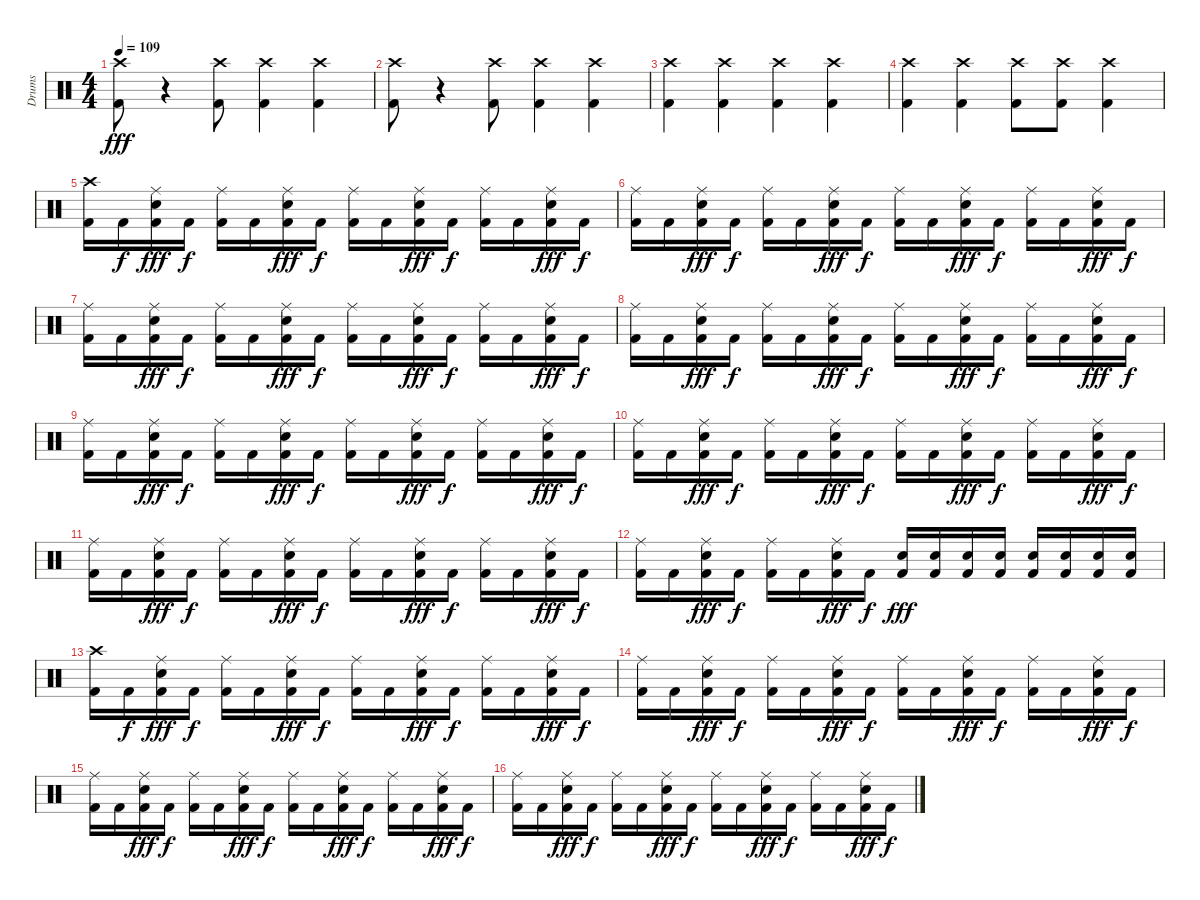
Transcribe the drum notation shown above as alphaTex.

\track ("Drums" "Drums") {instrument percussion}
\staff {score}
\articulation defaults
\ts (4 4)
\tempo 109
\clef neutral
\ks c
("Kick (hit) 2" "Crash high (hit)").8{dy fff} r.4 ("Kick (hit) 2" "Crash high (hit)").8 ("Kick (hit) 2" "Crash high (hit)").4 ("Kick (hit) 2" "Crash high (hit)").4 |
("Kick (hit) 2" "Crash high (hit)").8 r.4 ("Kick (hit) 2" "Crash high (hit)").8 ("Kick (hit) 2" "Crash high (hit)").4 ("Kick (hit) 2" "Crash high (hit)").4 |
("Kick (hit) 2" "Crash high (hit)").4 ("Kick (hit) 2" "Crash high (hit)").4 ("Kick (hit) 2" "Crash high (hit)").4 ("Kick (hit) 2" "Crash high (hit)").4 |
("Kick (hit) 2" "Crash high (hit)").4 ("Kick (hit) 2" "Crash high (hit)").4 ("Kick (hit) 2" "Crash high (hit)").8 ("Kick (hit) 2" "Crash high (hit)").8 ("Kick (hit) 2" "Crash high (hit)").4 |
("Kick (hit) 2" "Crash high (hit)").16 "Kick (hit) 2".16{dy f} ("Kick (hit) 2" "Snare (hit) 2" "Ride (middle)").16{dy fff} "Kick (hit) 2".16{dy f} ("Ride (middle)" "Kick (hit) 2").16 "Kick (hit) 2".16 ("Kick (hit) 2" "Snare (hit) 2" "Ride (middle)").16{dy fff} "Kick (hit) 2".16{dy f} ("Ride (middle)" "Kick (hit) 2").16 "Kick (hit) 2".16 ("Kick (hit) 2" "Snare (hit) 2" "Ride (middle)").16{dy fff} "Kick (hit) 2".16{dy f} ("Ride (middle)" "Kick (hit) 2").16 "Kick (hit) 2".16 ("Snare (hit) 2" "Ride (middle)" "Kick (hit) 2").16{dy fff} "Kick (hit) 2".16{dy f} |
("Ride (middle)" "Kick (hit) 2").16 "Kick (hit) 2".16 ("Ride (middle)" "Kick (hit) 2" "Snare (hit) 2").16{dy fff} "Kick (hit) 2".16{dy f} ("Kick (hit) 2" "Ride (middle)").16 "Kick (hit) 2".16 ("Ride (middle)" "Kick (hit) 2" "Snare (hit) 2").16{dy fff} "Kick (hit) 2".16{dy f} ("Kick (hit) 2" "Ride (middle)").16 "Kick (hit) 2".16 ("Ride (middle)" "Kick (hit) 2" "Snare (hit) 2").16{dy fff} "Kick (hit) 2".16{dy f} ("Kick (hit) 2" "Ride (middle)").16 "Kick (hit) 2".16 ("Ride (middle)" "Kick (hit) 2" "Snare (hit) 2").16{dy fff} "Kick (hit) 2".16{dy f} |
("Ride (middle)" "Kick (hit) 2").16 "Kick (hit) 2".16 ("Ride (middle)" "Kick (hit) 2" "Snare (hit) 2").16{dy fff} "Kick (hit) 2".16{dy f} ("Kick (hit) 2" "Ride (middle)").16 "Kick (hit) 2".16 ("Ride (middle)" "Kick (hit) 2" "Snare (hit) 2").16{dy fff} "Kick (hit) 2".16{dy f} ("Kick (hit) 2" "Ride (middle)").16 "Kick (hit) 2".16 ("Ride (middle)" "Kick (hit) 2" "Snare (hit) 2").16{dy fff} "Kick (hit) 2".16{dy f} ("Kick (hit) 2" "Ride (middle)").16 "Kick (hit) 2".16 ("Ride (middle)" "Kick (hit) 2" "Snare (hit) 2").16{dy fff} "Kick (hit) 2".16{dy f} |
("Ride (middle)" "Kick (hit) 2").16 "Kick (hit) 2".16 ("Ride (middle)" "Kick (hit) 2" "Snare (hit) 2").16{dy fff} "Kick (hit) 2".16{dy f} ("Kick (hit) 2" "Ride (middle)").16 "Kick (hit) 2".16 ("Ride (middle)" "Kick (hit) 2" "Snare (hit) 2").16{dy fff} "Kick (hit) 2".16{dy f} ("Kick (hit) 2" "Ride (middle)").16 "Kick (hit) 2".16 ("Ride (middle)" "Kick (hit) 2" "Snare (hit) 2").16{dy fff} "Kick (hit) 2".16{dy f} ("Kick (hit) 2" "Ride (middle)").16 "Kick (hit) 2".16 ("Ride (middle)" "Kick (hit) 2" "Snare (hit) 2").16{dy fff} "Kick (hit) 2".16{dy f} |
("Ride (middle)" "Kick (hit) 2").16 "Kick (hit) 2".16 ("Ride (middle)" "Kick (hit) 2" "Snare (hit) 2").16{dy fff} "Kick (hit) 2".16{dy f} ("Kick (hit) 2" "Ride (middle)").16 "Kick (hit) 2".16 ("Ride (middle)" "Kick (hit) 2" "Snare (hit) 2").16{dy fff} "Kick (hit) 2".16{dy f} ("Kick (hit) 2" "Ride (middle)").16 "Kick (hit) 2".16 ("Ride (middle)" "Kick (hit) 2" "Snare (hit) 2").16{dy fff} "Kick (hit) 2".16{dy f} ("Kick (hit) 2" "Ride (middle)").16 "Kick (hit) 2".16 ("Ride (middle)" "Kick (hit) 2" "Snare (hit) 2").16{dy fff} "Kick (hit) 2".16{dy f} |
("Ride (middle)" "Kick (hit) 2").16 "Kick (hit) 2".16 ("Ride (middle)" "Kick (hit) 2" "Snare (hit) 2").16{dy fff} "Kick (hit) 2".16{dy f} ("Kick (hit) 2" "Ride (middle)").16 "Kick (hit) 2".16 ("Ride (middle)" "Kick (hit) 2" "Snare (hit) 2").16{dy fff} "Kick (hit) 2".16{dy f} ("Kick (hit) 2" "Ride (middle)").16 "Kick (hit) 2".16 ("Ride (middle)" "Kick (hit) 2" "Snare (hit) 2").16{dy fff} "Kick (hit) 2".16{dy f} ("Kick (hit) 2" "Ride (middle)").16 "Kick (hit) 2".16 ("Ride (middle)" "Kick (hit) 2" "Snare (hit) 2").16{dy fff} "Kick (hit) 2".16{dy f} |
("Ride (middle)" "Kick (hit) 2").16 "Kick (hit) 2".16 ("Ride (middle)" "Kick (hit) 2" "Snare (hit) 2").16{dy fff} "Kick (hit) 2".16{dy f} ("Kick (hit) 2" "Ride (middle)").16 "Kick (hit) 2".16 ("Ride (middle)" "Kick (hit) 2" "Snare (hit) 2").16{dy fff} "Kick (hit) 2".16{dy f} ("Kick (hit) 2" "Ride (middle)").16 "Kick (hit) 2".16 ("Ride (middle)" "Kick (hit) 2" "Snare (hit) 2").16{dy fff} "Kick (hit) 2".16{dy f} ("Kick (hit) 2" "Ride (middle)").16 "Kick (hit) 2".16 ("Ride (middle)" "Kick (hit) 2" "Snare (hit) 2").16{dy fff} "Kick (hit) 2".16{dy f} |
("Ride (middle)" "Kick (hit) 2").16 "Kick (hit) 2".16 ("Ride (middle)" "Kick (hit) 2" "Snare (hit) 2").16{dy fff} "Kick (hit) 2".16{dy f} ("Kick (hit) 2" "Ride (middle)").16 "Kick (hit) 2".16 ("Ride (middle)" "Kick (hit) 2" "Snare (hit) 2").16{dy fff} "Kick (hit) 2".16{dy f} ("Snare (hit) 2" "Kick (hit) 2").16{dy fff} ("Snare (hit) 2" "Kick (hit) 2").16 ("Snare (hit) 2" "Kick (hit) 2").16 ("Snare (hit) 2" "Kick (hit) 2").16 ("Snare (hit) 2" "Kick (hit) 2").16 ("Snare (hit) 2" "Kick (hit) 2").16 ("Snare (hit) 2" "Kick (hit) 2").16 ("Snare (hit) 2" "Kick (hit) 2").16 |
("Kick (hit) 2" "Crash high (hit)").16 "Kick (hit) 2".16{dy f} ("Kick (hit) 2" "Snare (hit) 2" "Ride (middle)").16{dy fff} "Kick (hit) 2".16{dy f} ("Ride (middle)" "Kick (hit) 2").16 "Kick (hit) 2".16 ("Kick (hit) 2" "Snare (hit) 2" "Ride (middle)").16{dy fff} "Kick (hit) 2".16{dy f} ("Ride (middle)" "Kick (hit) 2").16 "Kick (hit) 2".16 ("Kick (hit) 2" "Snare (hit) 2" "Ride (middle)").16{dy fff} "Kick (hit) 2".16{dy f} ("Ride (middle)" "Kick (hit) 2").16 "Kick (hit) 2".16 ("Kick (hit) 2" "Snare (hit) 2" "Ride (middle)").16{dy fff} "Kick (hit) 2".16{dy f} |
("Ride (middle)" "Kick (hit) 2").16 "Kick (hit) 2".16 ("Ride (middle)" "Kick (hit) 2" "Snare (hit) 2").16{dy fff} "Kick (hit) 2".16{dy f} ("Kick (hit) 2" "Ride (middle)").16 "Kick (hit) 2".16 ("Ride (middle)" "Kick (hit) 2" "Snare (hit) 2").16{dy fff} "Kick (hit) 2".16{dy f} ("Kick (hit) 2" "Ride (middle)").16 "Kick (hit) 2".16 ("Ride (middle)" "Kick (hit) 2" "Snare (hit) 2").16{dy fff} "Kick (hit) 2".16{dy f} ("Kick (hit) 2" "Ride (middle)").16 "Kick (hit) 2".16 ("Ride (middle)" "Kick (hit) 2" "Snare (hit) 2").16{dy fff} "Kick (hit) 2".16{dy f} |
("Ride (middle)" "Kick (hit) 2").16 "Kick (hit) 2".16 ("Ride (middle)" "Kick (hit) 2" "Snare (hit) 2").16{dy fff} "Kick (hit) 2".16{dy f} ("Kick (hit) 2" "Ride (middle)").16 "Kick (hit) 2".16 ("Ride (middle)" "Kick (hit) 2" "Snare (hit) 2").16{dy fff} "Kick (hit) 2".16{dy f} ("Kick (hit) 2" "Ride (middle)").16 "Kick (hit) 2".16 ("Ride (middle)" "Kick (hit) 2" "Snare (hit) 2").16{dy fff} "Kick (hit) 2".16{dy f} ("Kick (hit) 2" "Ride (middle)").16 "Kick (hit) 2".16 ("Ride (middle)" "Kick (hit) 2" "Snare (hit) 2").16{dy fff} "Kick (hit) 2".16{dy f} |
("Kick (hit) 2" "Ride (middle)").16 "Kick (hit) 2".16 ("Kick (hit) 2" "Snare (hit) 2" "Ride (middle)").16{dy fff} "Kick (hit) 2".16{dy f} ("Ride (middle)" "Kick (hit) 2").16 "Kick (hit) 2".16 ("Ride (middle)" "Kick (hit) 2" "Snare (hit) 2").16{dy fff} "Kick (hit) 2".16{dy f} ("Ride (middle)" "Kick (hit) 2").16 "Kick (hit) 2".16 ("Kick (hit) 2" "Snare (hit) 2" "Ride (middle)").16{dy fff} "Kick (hit) 2".16{dy f} ("Ride (middle)" "Kick (hit) 2").16 "Kick (hit) 2".16 ("Kick (hit) 2" "Snare (hit) 2" "Ride (middle)").16{dy fff} "Kick (hit) 2".16{dy f}
